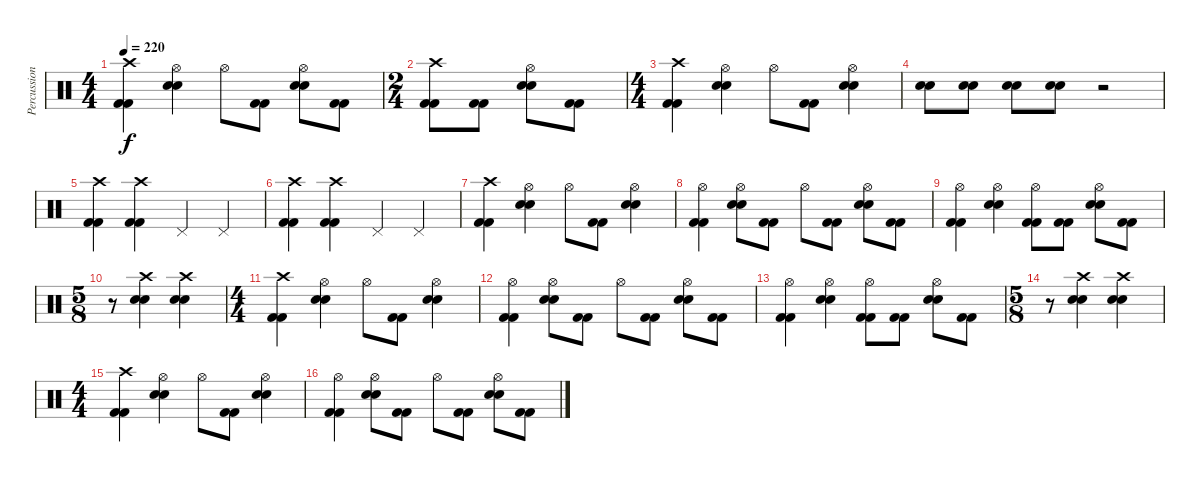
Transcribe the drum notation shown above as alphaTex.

\track ("Percussion" "Percussion") {instrument percussion}
\staff {score}
\articulation defaults
\ts (4 4)
\tempo 220
\clef neutral
\ks c
("Crash high (hit)" "Kick (hit) 2" "Kick (hit) 2").4{dy f} ("Hi-Hat (open)" "Electric Snare (hit)" "Electric Snare (hit)").4 "Hi-Hat (open)".8 ("Kick (hit) 2" "Kick (hit) 2").8 ("Hi-Hat (open)" "Electric Snare (hit)" "Electric Snare (hit)").8 ("Kick (hit) 2" "Kick (hit) 2").8 |
\ts (2 4)
("Crash high (hit)" "Kick (hit) 2" "Kick (hit) 2").8 ("Kick (hit) 2" "Kick (hit) 2").8 ("Hi-Hat (open)" "Electric Snare (hit)" "Electric Snare (hit)").8 ("Kick (hit) 2" "Kick (hit) 2").8 |
\ts (4 4)
("Crash high (hit)" "Kick (hit) 2" "Kick (hit) 2").4 ("Hi-Hat (open)" "Electric Snare (hit)" "Electric Snare (hit)").4 "Hi-Hat (open)".8 ("Kick (hit) 2" "Kick (hit) 2").8 ("Hi-Hat (open)" "Electric Snare (hit)" "Electric Snare (hit)").4 |
("Electric Snare (hit)" "Electric Snare (hit)").8 ("Electric Snare (hit)" "Electric Snare (hit)").8 ("Electric Snare (hit)" "Electric Snare (hit)").8 ("Electric Snare (hit)" "Electric Snare (hit)").8 r.2 |
("Crash high (hit)" "Kick (hit) 2" "Kick (hit) 2").4 ("Crash high (hit)" "Kick (hit) 2" "Kick (hit) 2").4 "Pedal Hi-Hat (hit)".4 "Pedal Hi-Hat (hit)".4 |
("Crash high (hit)" "Kick (hit) 2" "Kick (hit) 2").4 ("Crash high (hit)" "Kick (hit) 2" "Kick (hit) 2").4 "Pedal Hi-Hat (hit)".4 "Pedal Hi-Hat (hit)".4 |
("Crash high (hit)" "Kick (hit) 2" "Kick (hit) 2").4 ("Hi-Hat (open)" "Electric Snare (hit)" "Electric Snare (hit)").4 "Hi-Hat (open)".8 ("Kick (hit) 2" "Kick (hit) 2").8 ("Hi-Hat (open)" "Electric Snare (hit)" "Electric Snare (hit)").4 |
("Hi-Hat (open)" "Kick (hit) 2" "Kick (hit) 2").4 ("Hi-Hat (open)" "Electric Snare (hit)" "Electric Snare (hit)").8 ("Kick (hit) 2" "Kick (hit) 2").8 "Hi-Hat (open)".8 ("Kick (hit) 2" "Kick (hit) 2").8 ("Hi-Hat (open)" "Electric Snare (hit)" "Electric Snare (hit)").8 ("Kick (hit) 2" "Kick (hit) 2").8 |
("Hi-Hat (open)" "Kick (hit) 2" "Kick (hit) 2").4 ("Hi-Hat (open)" "Electric Snare (hit)" "Electric Snare (hit)").4 ("Hi-Hat (open)" "Kick (hit) 2" "Kick (hit) 2").8 ("Kick (hit) 2" "Kick (hit) 2").8 ("Hi-Hat (open)" "Electric Snare (hit)" "Electric Snare (hit)").8 ("Kick (hit) 2" "Kick (hit) 2").8 |
\ts (5 8)
r.8 ("Crash high (hit)" "Electric Snare (hit)" "Electric Snare (hit)").4 ("Crash high (hit)" "Electric Snare (hit)" "Electric Snare (hit)").4 |
\ts (4 4)
("Crash high (hit)" "Kick (hit) 2" "Kick (hit) 2").4 ("Hi-Hat (open)" "Electric Snare (hit)" "Electric Snare (hit)").4 "Hi-Hat (open)".8 ("Kick (hit) 2" "Kick (hit) 2").8 ("Hi-Hat (open)" "Electric Snare (hit)" "Electric Snare (hit)").4 |
("Hi-Hat (open)" "Kick (hit) 2" "Kick (hit) 2").4 ("Hi-Hat (open)" "Electric Snare (hit)" "Electric Snare (hit)").8 ("Kick (hit) 2" "Kick (hit) 2").8 "Hi-Hat (open)".8 ("Kick (hit) 2" "Kick (hit) 2").8 ("Hi-Hat (open)" "Electric Snare (hit)" "Electric Snare (hit)").8 ("Kick (hit) 2" "Kick (hit) 2").8 |
("Hi-Hat (open)" "Kick (hit) 2" "Kick (hit) 2").4 ("Hi-Hat (open)" "Electric Snare (hit)" "Electric Snare (hit)").4 ("Hi-Hat (open)" "Kick (hit) 2" "Kick (hit) 2").8 ("Kick (hit) 2" "Kick (hit) 2").8 ("Hi-Hat (open)" "Electric Snare (hit)" "Electric Snare (hit)").8 ("Kick (hit) 2" "Kick (hit) 2").8 |
\ts (5 8)
r.8 ("Crash high (hit)" "Electric Snare (hit)" "Electric Snare (hit)").4 ("Crash high (hit)" "Electric Snare (hit)" "Electric Snare (hit)").4 |
\ts (4 4)
("Crash high (hit)" "Kick (hit) 2" "Kick (hit) 2").4 ("Hi-Hat (open)" "Electric Snare (hit)" "Electric Snare (hit)").4 "Hi-Hat (open)".8 ("Kick (hit) 2" "Kick (hit) 2").8 ("Hi-Hat (open)" "Electric Snare (hit)" "Electric Snare (hit)").4 |
("Hi-Hat (open)" "Kick (hit) 2" "Kick (hit) 2").4 ("Hi-Hat (open)" "Electric Snare (hit)" "Electric Snare (hit)").8 ("Kick (hit) 2" "Kick (hit) 2").8 "Hi-Hat (open)".8 ("Kick (hit) 2" "Kick (hit) 2").8 ("Hi-Hat (open)" "Electric Snare (hit)" "Electric Snare (hit)").8 ("Kick (hit) 2" "Kick (hit) 2").8
